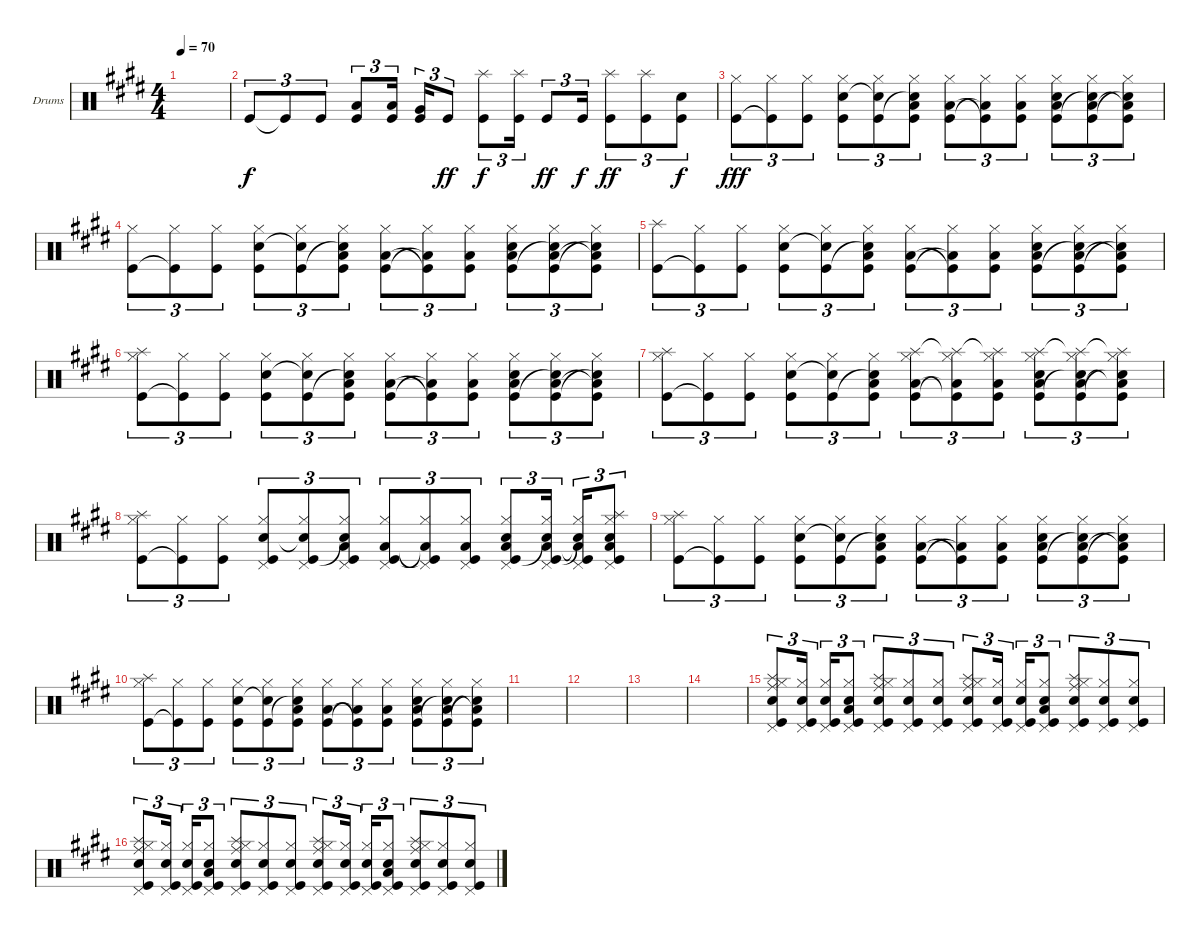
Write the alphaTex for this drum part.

\defaultSystemsLayout 4
\bracketExtendMode groupsimilarinstruments
\firstSystemTrackNameOrientation horizontal
\otherSystemsTrackNameOrientation horizontal
\track ("Drumkit" "Drums") {instrument percussion}
\staff {score}
\articulation defaults
\ts (4 4)
\tempo 70
\clef neutral
\ks c#minor
|
"Kick (hit)".8{tu (3 2)} "Kick (hit)"{t}.8{tu (3 2)} "Kick (hit)".8{tu (3 2) dy f} ("Low Tom (hit)" "Kick (hit)").8{tu (3 2)} ("Kick (hit)" "Low Tom (hit)").16{tu (3 2)} ("Very Low Tom (hit)" "Kick (hit)").16{tu (3 2)} "Kick (hit)".8{tu (3 2) dy ff} ("Kick (hit)" "Splash (hit)").8{tu (3 2) dy f} ("Kick (hit)" "Splash (hit)").16{tu (3 2)} "Kick (hit)".8{tu (3 2) dy ff} "Kick (hit)".16{tu (3 2) dy f} ("Kick (hit)" "Splash (hit)").8{tu (3 2) dy ff} ("Kick (hit)" "Splash (hit)").8{tu (3 2)} ("Kick (hit)" "Snare (hit) 2").8{tu (3 2) dy f} |
("Kick (hit)" "Hi-Hat (closed)").8{tu (3 2) dy fff} ("Kick (hit)"{t} "Hi-Hat (closed)").8{tu (3 2)} ("Kick (hit)" "Hi-Hat (closed)").8{tu (3 2)} ("Kick (hit)" "Snare (hit) 2" "Hi-Hat (closed)").8{tu (3 2)} ("Kick (hit)" "Snare (hit) 2"{t} "Hi-Hat (closed)").8{tu (3 2)} ("Snare (hit) 2"{t} "Kick (hit)" "Low Tom (hit)" "Hi-Hat (closed)").8{tu (3 2)} ("Kick (hit)" "Low Tom (hit)" "Hi-Hat (closed)").8{tu (3 2)} ("Low Tom (hit)"{t} "Kick (hit)"{t} "Hi-Hat (closed)").8{tu (3 2)} ("Kick (hit)" "Low Tom (hit)" "Hi-Hat (closed)").8{tu (3 2)} ("Snare (hit) 2" "Low Tom (hit)" "Kick (hit)" "Hi-Hat (closed)").8{tu (3 2)} ("Kick (hit)" "Low Tom (hit)" "Snare (hit) 2"{t} "Hi-Hat (closed)").8{tu (3 2)} ("Snare (hit) 2"{t} "Low Tom (hit)"{t} "Kick (hit)" "Hi-Hat (closed)").8{tu (3 2)} |
("Kick (hit)" "Hi-Hat (closed)").8{tu (3 2)} ("Kick (hit)"{t} "Hi-Hat (closed)").8{tu (3 2)} ("Kick (hit)" "Hi-Hat (closed)").8{tu (3 2)} ("Kick (hit)" "Snare (hit) 2" "Hi-Hat (closed)").8{tu (3 2)} ("Kick (hit)" "Snare (hit) 2"{t} "Hi-Hat (closed)").8{tu (3 2)} ("Snare (hit) 2"{t} "Kick (hit)" "Low Tom (hit)" "Hi-Hat (closed)").8{tu (3 2)} ("Kick (hit)" "Low Tom (hit)" "Hi-Hat (closed)").8{tu (3 2)} ("Low Tom (hit)"{t} "Kick (hit)"{t} "Hi-Hat (closed)").8{tu (3 2)} ("Kick (hit)" "Low Tom (hit)" "Hi-Hat (closed)").8{tu (3 2)} ("Snare (hit) 2" "Low Tom (hit)" "Kick (hit)" "Hi-Hat (closed)").8{tu (3 2)} ("Kick (hit)" "Low Tom (hit)" "Snare (hit) 2"{t} "Hi-Hat (closed)").8{tu (3 2)} ("Snare (hit) 2"{t} "Low Tom (hit)"{t} "Kick (hit)" "Hi-Hat (closed)").8{tu (3 2)} |
("Kick (hit)" "Splash (hit)").8{tu (3 2)} ("Kick (hit)"{t} "Hi-Hat (closed)").8{tu (3 2)} ("Kick (hit)" "Hi-Hat (closed)").8{tu (3 2)} ("Kick (hit)" "Snare (hit) 2" "Hi-Hat (closed)").8{tu (3 2)} ("Kick (hit)" "Snare (hit) 2"{t} "Hi-Hat (closed)").8{tu (3 2)} ("Snare (hit) 2"{t} "Kick (hit)" "Low Tom (hit)" "Hi-Hat (closed)").8{tu (3 2)} ("Kick (hit)" "Low Tom (hit)" "Hi-Hat (closed)").8{tu (3 2)} ("Low Tom (hit)"{t} "Kick (hit)"{t} "Hi-Hat (closed)").8{tu (3 2)} ("Kick (hit)" "Low Tom (hit)" "Hi-Hat (closed)").8{tu (3 2)} ("Snare (hit) 2" "Low Tom (hit)" "Kick (hit)" "Hi-Hat (closed)").8{tu (3 2)} ("Kick (hit)" "Low Tom (hit)" "Snare (hit) 2"{t} "Hi-Hat (closed)").8{tu (3 2)} ("Snare (hit) 2"{t} "Low Tom (hit)"{t} "Kick (hit)" "Hi-Hat (closed)").8{tu (3 2)} |
("Kick (hit)" "Hi-Hat (closed)" "Splash (hit)").8{tu (3 2)} ("Kick (hit)"{t} "Hi-Hat (closed)").8{tu (3 2)} ("Kick (hit)" "Hi-Hat (closed)").8{tu (3 2)} ("Kick (hit)" "Snare (hit) 2" "Hi-Hat (closed)").8{tu (3 2)} ("Kick (hit)" "Snare (hit) 2"{t} "Hi-Hat (closed)").8{tu (3 2)} ("Snare (hit) 2"{t} "Kick (hit)" "Low Tom (hit)" "Hi-Hat (closed)").8{tu (3 2)} ("Kick (hit)" "Low Tom (hit)" "Hi-Hat (closed)").8{tu (3 2)} ("Low Tom (hit)"{t} "Kick (hit)"{t} "Hi-Hat (closed)").8{tu (3 2)} ("Kick (hit)" "Low Tom (hit)" "Hi-Hat (closed)").8{tu (3 2)} ("Snare (hit) 2" "Low Tom (hit)" "Kick (hit)" "Hi-Hat (closed)").8{tu (3 2)} ("Kick (hit)" "Low Tom (hit)" "Snare (hit) 2"{t} "Hi-Hat (closed)").8{tu (3 2)} ("Snare (hit) 2"{t} "Low Tom (hit)"{t} "Kick (hit)" "Hi-Hat (closed)").8{tu (3 2)} |
("Kick (hit)" "Hi-Hat (closed)" "Splash (hit)").8{tu (3 2)} ("Kick (hit)"{t} "Hi-Hat (closed)").8{tu (3 2)} ("Kick (hit)" "Hi-Hat (closed)").8{tu (3 2)} ("Kick (hit)" "Snare (hit) 2" "Hi-Hat (closed)").8{tu (3 2)} ("Kick (hit)" "Snare (hit) 2"{t} "Hi-Hat (closed)").8{tu (3 2)} ("Snare (hit) 2"{t} "Kick (hit)" "Low Tom (hit)" "Hi-Hat (closed)").8{tu (3 2)} ("Kick (hit)" "Low Tom (hit)" "Hi-Hat (closed)" "Splash (hit)").8{tu (3 2)} ("Low Tom (hit)"{t} "Kick (hit)"{t} "Hi-Hat (closed)" "Splash (hit)"{t}).8{tu (3 2)} ("Kick (hit)" "Low Tom (hit)" "Hi-Hat (closed)" "Splash (hit)"{t}).8{tu (3 2)} ("Snare (hit) 2" "Low Tom (hit)" "Kick (hit)" "Hi-Hat (closed)" "Splash (hit)").8{tu (3 2)} ("Kick (hit)" "Low Tom (hit)" "Snare (hit) 2"{t} "Hi-Hat (closed)" "Splash (hit)"{t}).8{tu (3 2)} ("Snare (hit) 2"{t} "Low Tom (hit)"{t} "Kick (hit)" "Hi-Hat (closed)" "Splash (hit)"{t}).8{tu (3 2)} |
("Kick (hit)" "Hi-Hat (closed)" "Splash (hit)").8{tu (3 2)} ("Kick (hit)"{t} "Hi-Hat (closed)").8{tu (3 2)} ("Kick (hit)" "Hi-Hat (closed)").8{tu (3 2)} ("Kick (hit)" "Snare (hit) 2" "Hi-Hat (closed)" "Pedal Hi-Hat (hit)").8{tu (3 2)} ("Kick (hit)" "Snare (hit) 2"{t} "Hi-Hat (closed)" "Pedal Hi-Hat (hit)").8{tu (3 2)} ("Snare (hit) 2"{t} "Kick (hit)" "Low Tom (hit)" "Hi-Hat (closed)" "Pedal Hi-Hat (hit)").8{tu (3 2)} ("Kick (hit)" "Low Tom (hit)" "Hi-Hat (closed)" "Pedal Hi-Hat (hit)").8{tu (3 2)} ("Low Tom (hit)"{t} "Kick (hit)"{t} "Hi-Hat (closed)" "Pedal Hi-Hat (hit)").8{tu (3 2)} ("Kick (hit)" "Low Tom (hit)" "Hi-Hat (closed)" "Pedal Hi-Hat (hit)").8{tu (3 2)} ("Snare (hit) 2" "Low Tom (hit)" "Kick (hit)" "Hi-Hat (closed)" "Pedal Hi-Hat (hit)").8{tu (3 2)} ("Kick (hit)" "Low Tom (hit)" "Snare (hit) 2"{t} "Hi-Hat (closed)" "Pedal Hi-Hat (hit)").16{tu (3 2)} ("Snare (hit) 2"{t} "Low Tom (hit)"{t} "Kick (hit)" "Hi-Hat (closed)" "Pedal Hi-Hat (hit)").16{tu (3 2)} ("Kick (hit)" "Low Tom (hit)" "Snare (hit) 2" "Hi-Hat (closed)" "Pedal Hi-Hat (hit)" "Splash (hit)").8{tu (3 2)} |
("Kick (hit)" "Hi-Hat (closed)" "Splash (hit)").8{tu (3 2)} ("Kick (hit)"{t} "Hi-Hat (closed)").8{tu (3 2)} ("Kick (hit)" "Hi-Hat (closed)").8{tu (3 2)} ("Kick (hit)" "Snare (hit) 2" "Hi-Hat (closed)").8{tu (3 2)} ("Kick (hit)" "Snare (hit) 2"{t} "Hi-Hat (closed)").8{tu (3 2)} ("Snare (hit) 2"{t} "Kick (hit)" "Low Tom (hit)" "Hi-Hat (closed)").8{tu (3 2)} ("Kick (hit)" "Low Tom (hit)" "Hi-Hat (closed)").8{tu (3 2)} ("Low Tom (hit)"{t} "Kick (hit)"{t} "Hi-Hat (closed)").8{tu (3 2)} ("Kick (hit)" "Low Tom (hit)" "Hi-Hat (closed)").8{tu (3 2)} ("Snare (hit) 2" "Low Tom (hit)" "Kick (hit)" "Hi-Hat (closed)").8{tu (3 2)} ("Kick (hit)" "Low Tom (hit)" "Snare (hit) 2"{t} "Hi-Hat (closed)").8{tu (3 2)} ("Snare (hit) 2"{t} "Low Tom (hit)"{t} "Kick (hit)" "Hi-Hat (closed)").8{tu (3 2)} |
("Kick (hit)" "Hi-Hat (closed)" "Splash (hit)").8{tu (3 2)} ("Kick (hit)"{t} "Hi-Hat (closed)").8{tu (3 2)} ("Kick (hit)" "Hi-Hat (closed)").8{tu (3 2)} ("Kick (hit)" "Snare (hit) 2" "Hi-Hat (closed)").8{tu (3 2)} ("Kick (hit)" "Snare (hit) 2"{t} "Hi-Hat (closed)").8{tu (3 2)} ("Snare (hit) 2"{t} "Kick (hit)" "Low Tom (hit)" "Hi-Hat (closed)").8{tu (3 2)} ("Kick (hit)" "Low Tom (hit)" "Hi-Hat (closed)").8{tu (3 2)} ("Low Tom (hit)"{t} "Kick (hit)"{t} "Hi-Hat (closed)").8{tu (3 2)} ("Kick (hit)" "Low Tom (hit)" "Hi-Hat (closed)").8{tu (3 2)} ("Snare (hit) 2" "Low Tom (hit)" "Kick (hit)" "Hi-Hat (closed)").8{tu (3 2)} ("Kick (hit)" "Low Tom (hit)" "Snare (hit) 2"{t} "Hi-Hat (closed)").8{tu (3 2)} ("Snare (hit) 2"{t} "Low Tom (hit)"{t} "Kick (hit)" "Hi-Hat (closed)").8{tu (3 2)} |
|
|
|
|
("Ride (middle)" "Snare (hit) 2" "Kick (hit)" "Hi-Hat (closed)" "Splash (hit)" "Pedal Hi-Hat (hit)").8{tu (3 2)} ("Kick (hit)" "Hi-Hat (closed)" "Pedal Hi-Hat (hit)" "Snare (hit) 2").16{tu (3 2)} ("Kick (hit)" "Hi-Hat (closed)" "Pedal Hi-Hat (hit)" "Snare (hit) 2").16{tu (3 2)} ("Kick (hit)" "Low Tom (hit)" "Hi-Hat (closed)" "Pedal Hi-Hat (hit)" "Snare (hit) 2").8{tu (3 2)} ("Ride (middle)" "Snare (hit) 2" "Kick (hit)" "Hi-Hat (closed)" "Splash (hit)" "Pedal Hi-Hat (hit)").8{tu (3 2)} ("Kick (hit)" "Hi-Hat (closed)" "Pedal Hi-Hat (hit)" "Snare (hit) 2").8{tu (3 2)} ("Kick (hit)" "Hi-Hat (closed)" "Pedal Hi-Hat (hit)" "Snare (hit) 2").8{tu (3 2)} ("Ride (middle)" "Snare (hit) 2" "Kick (hit)" "Hi-Hat (closed)" "Splash (hit)" "Pedal Hi-Hat (hit)").8{tu (3 2)} ("Kick (hit)" "Hi-Hat (closed)" "Pedal Hi-Hat (hit)" "Snare (hit) 2").16{tu (3 2)} ("Kick (hit)" "Hi-Hat (closed)" "Pedal Hi-Hat (hit)" "Snare (hit) 2").16{tu (3 2)} ("Kick (hit)" "Low Tom (hit)" "Hi-Hat (closed)" "Pedal Hi-Hat (hit)" "Snare (hit) 2").8{tu (3 2)} ("Ride (middle)" "Snare (hit) 2" "Kick (hit)" "Hi-Hat (closed)" "Splash (hit)" "Pedal Hi-Hat (hit)").8{tu (3 2)} ("Kick (hit)" "Hi-Hat (closed)" "Pedal Hi-Hat (hit)" "Snare (hit) 2").8{tu (3 2)} ("Kick (hit)" "Hi-Hat (closed)" "Pedal Hi-Hat (hit)" "Snare (hit) 2").8{tu (3 2)} |
("Ride (middle)" "Snare (hit) 2" "Kick (hit)" "Hi-Hat (closed)" "Splash (hit)" "Pedal Hi-Hat (hit)").8{tu (3 2)} ("Kick (hit)" "Hi-Hat (closed)" "Pedal Hi-Hat (hit)" "Snare (hit) 2").16{tu (3 2)} ("Kick (hit)" "Hi-Hat (closed)" "Pedal Hi-Hat (hit)" "Snare (hit) 2").16{tu (3 2)} ("Kick (hit)" "Low Tom (hit)" "Hi-Hat (closed)" "Pedal Hi-Hat (hit)" "Snare (hit) 2").8{tu (3 2)} ("Ride (middle)" "Snare (hit) 2" "Kick (hit)" "Hi-Hat (closed)" "Splash (hit)" "Pedal Hi-Hat (hit)").8{tu (3 2)} ("Kick (hit)" "Hi-Hat (closed)" "Pedal Hi-Hat (hit)" "Snare (hit) 2").8{tu (3 2)} ("Kick (hit)" "Hi-Hat (closed)" "Pedal Hi-Hat (hit)" "Snare (hit) 2").8{tu (3 2)} ("Ride (middle)" "Snare (hit) 2" "Kick (hit)" "Hi-Hat (closed)" "Splash (hit)" "Pedal Hi-Hat (hit)").8{tu (3 2)} ("Kick (hit)" "Hi-Hat (closed)" "Pedal Hi-Hat (hit)" "Snare (hit) 2").16{tu (3 2)} ("Kick (hit)" "Hi-Hat (closed)" "Pedal Hi-Hat (hit)" "Snare (hit) 2").16{tu (3 2)} ("Kick (hit)" "Low Tom (hit)" "Hi-Hat (closed)" "Pedal Hi-Hat (hit)" "Snare (hit) 2").8{tu (3 2)} ("Ride (middle)" "Snare (hit) 2" "Kick (hit)" "Hi-Hat (closed)" "Splash (hit)" "Pedal Hi-Hat (hit)").8{tu (3 2)} ("Kick (hit)" "Hi-Hat (closed)" "Pedal Hi-Hat (hit)" "Snare (hit) 2").8{tu (3 2)} ("Kick (hit)" "Hi-Hat (closed)" "Pedal Hi-Hat (hit)" "Snare (hit) 2").8{tu (3 2)}
